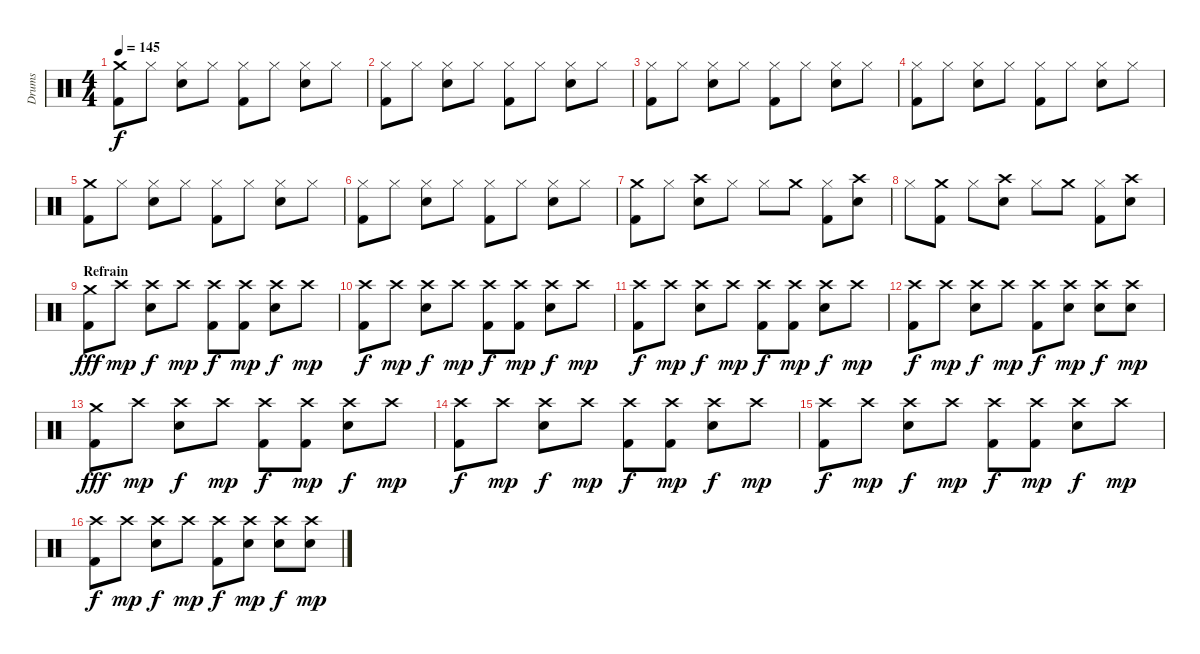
\track ("Drums" "Drums") {instrument percussion}
\staff {score}
\articulation defaults
\ts (4 4)
\tempo 145
\clef neutral
\ks c
("Crash medium (hit)" "Kick (hit) 2").8{dy f volume 13} "Hi-Hat (closed)".8 ("Hi-Hat (closed)" "Snare (hit) 2").8 "Hi-Hat (closed)".8 ("Hi-Hat (closed)" "Kick (hit) 2").8 "Hi-Hat (closed)".8 ("Hi-Hat (closed)" "Snare (hit) 2").8 "Hi-Hat (closed)".8 |
("Hi-Hat (closed)" "Kick (hit) 2").8 "Hi-Hat (closed)".8 ("Hi-Hat (closed)" "Snare (hit) 2").8 "Hi-Hat (closed)".8 ("Hi-Hat (closed)" "Kick (hit) 2").8 "Hi-Hat (closed)".8 ("Hi-Hat (closed)" "Snare (hit) 2").8 "Hi-Hat (closed)".8 |
("Hi-Hat (closed)" "Kick (hit) 2").8 "Hi-Hat (closed)".8 ("Hi-Hat (closed)" "Snare (hit) 2").8 "Hi-Hat (closed)".8 ("Hi-Hat (closed)" "Kick (hit) 2").8 "Hi-Hat (closed)".8 ("Hi-Hat (closed)" "Snare (hit) 2").8 "Hi-Hat (closed)".8 |
("Hi-Hat (closed)" "Kick (hit) 2").8 "Hi-Hat (closed)".8 ("Hi-Hat (closed)" "Snare (hit) 2").8 "Hi-Hat (closed)".8 ("Hi-Hat (closed)" "Kick (hit) 2").8 "Hi-Hat (closed)".8 ("Hi-Hat (closed)" "Snare (hit) 2").8 "Hi-Hat (closed)".8 |
("Crash medium (hit)" "Kick (hit) 2").8 "Hi-Hat (closed)".8 ("Hi-Hat (closed)" "Snare (hit) 2").8 "Hi-Hat (closed)".8 ("Hi-Hat (closed)" "Kick (hit) 2").8 "Hi-Hat (closed)".8 ("Hi-Hat (closed)" "Snare (hit) 2").8 "Hi-Hat (closed)".8 |
("Hi-Hat (closed)" "Kick (hit) 2").8 "Hi-Hat (closed)".8 ("Hi-Hat (closed)" "Snare (hit) 2").8 "Hi-Hat (closed)".8 ("Hi-Hat (closed)" "Kick (hit) 2").8 "Hi-Hat (closed)".8 ("Hi-Hat (closed)" "Snare (hit) 2").8 "Hi-Hat (closed)".8 |
("Crash medium (hit)" "Kick (hit) 2").8 "Hi-Hat (closed)".8 ("Crash high (hit)" "Snare (hit) 2").8 "Hi-Hat (closed)".8 "Hi-Hat (closed)".8 "Crash medium (hit)".8 ("Hi-Hat (closed)" "Kick (hit) 2").8 ("Crash high (hit)" "Snare (hit) 2").8 |
"Hi-Hat (closed)".8 ("Crash medium (hit)" "Kick (hit) 2").8 "Hi-Hat (closed)".8 ("Crash high (hit)" "Snare (hit) 2").8 "Hi-Hat (closed)".8 "Crash medium (hit)".8 ("Hi-Hat (closed)" "Kick (hit) 2").8 ("Crash high (hit)" "Snare (hit) 2").8 |
\section ("" "Refrain")
("Crash medium (hit)" "Kick (hit) 2").8{dy fff} "Crash high (hit)".8{dy mp} ("Crash high (hit)" "Snare (hit) 2").8{dy f} "Crash high (hit)".8{dy mp} ("Crash high (hit)" "Kick (hit) 2").8{dy f} ("Crash high (hit)" "Kick (hit) 2").8{dy mp} ("Crash high (hit)" "Snare (hit) 2").8{dy f} "Crash high (hit)".8{dy mp} |
("Crash high (hit)" "Kick (hit) 2").8{dy f} "Crash high (hit)".8{dy mp} ("Crash high (hit)" "Snare (hit) 2").8{dy f} "Crash high (hit)".8{dy mp} ("Crash high (hit)" "Kick (hit) 2").8{dy f} ("Crash high (hit)" "Kick (hit) 2").8{dy mp} ("Crash high (hit)" "Snare (hit) 2").8{dy f} "Crash high (hit)".8{dy mp} |
("Crash high (hit)" "Kick (hit) 2").8{dy f} "Crash high (hit)".8{dy mp} ("Crash high (hit)" "Snare (hit) 2").8{dy f} "Crash high (hit)".8{dy mp} ("Crash high (hit)" "Kick (hit) 2").8{dy f} ("Crash high (hit)" "Kick (hit) 2").8{dy mp} ("Crash high (hit)" "Snare (hit) 2").8{dy f} "Crash high (hit)".8{dy mp} |
("Crash high (hit)" "Kick (hit) 2").8{dy f} "Crash high (hit)".8{dy mp} ("Crash high (hit)" "Snare (hit) 2").8{dy f} "Crash high (hit)".8{dy mp} ("Crash high (hit)" "Kick (hit) 2").8{dy f} ("Crash high (hit)" "Snare (hit) 2").8{dy mp} ("Crash high (hit)" "Snare (hit) 2").8{dy f} ("Crash high (hit)" "Snare (hit) 2").8{dy mp} |
("Crash medium (hit)" "Kick (hit) 2").8{dy fff} "Crash high (hit)".8{dy mp} ("Crash high (hit)" "Snare (hit) 2").8{dy f} "Crash high (hit)".8{dy mp} ("Crash high (hit)" "Kick (hit) 2").8{dy f} ("Crash high (hit)" "Kick (hit) 2").8{dy mp} ("Crash high (hit)" "Snare (hit) 2").8{dy f} "Crash high (hit)".8{dy mp} |
("Crash high (hit)" "Kick (hit) 2").8{dy f} "Crash high (hit)".8{dy mp} ("Crash high (hit)" "Snare (hit) 2").8{dy f} "Crash high (hit)".8{dy mp} ("Crash high (hit)" "Kick (hit) 2").8{dy f} ("Crash high (hit)" "Kick (hit) 2").8{dy mp} ("Crash high (hit)" "Snare (hit) 2").8{dy f} "Crash high (hit)".8{dy mp} |
("Crash high (hit)" "Kick (hit) 2").8{dy f} "Crash high (hit)".8{dy mp} ("Crash high (hit)" "Snare (hit) 2").8{dy f} "Crash high (hit)".8{dy mp} ("Crash high (hit)" "Kick (hit) 2").8{dy f} ("Crash high (hit)" "Kick (hit) 2").8{dy mp} ("Crash high (hit)" "Snare (hit) 2").8{dy f} "Crash high (hit)".8{dy mp} |
("Crash high (hit)" "Kick (hit) 2").8{dy f} "Crash high (hit)".8{dy mp} ("Crash high (hit)" "Snare (hit) 2").8{dy f} "Crash high (hit)".8{dy mp} ("Crash high (hit)" "Kick (hit) 2").8{dy f} ("Crash high (hit)" "Snare (hit) 2").8{dy mp} ("Crash high (hit)" "Snare (hit) 2").8{dy f} ("Crash high (hit)" "Snare (hit) 2").8{dy mp}
